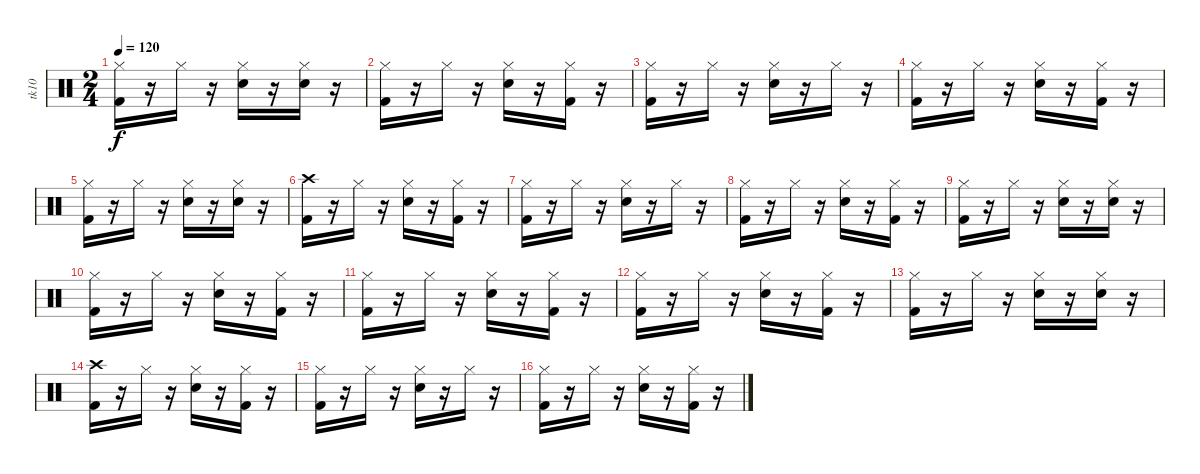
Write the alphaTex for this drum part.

\track ("tk10" "tk10") {instrument percussion}
\staff {score}
\articulation defaults
\ts (2 4)
\tempo 120
\clef neutral
\ks c
("Kick (hit) 2" "Hi-Hat (closed)").16{dy f} r.16 "Hi-Hat (closed)".16 r.16 ("Hi-Hat (closed)" "Snare (hit) 2").16 r.16 ("Snare (hit) 2" "Hi-Hat (closed)").16 r.16 |
("Hi-Hat (closed)" "Kick (hit) 2").16 r.16 "Hi-Hat (closed)".16 r.16 ("Snare (hit) 2" "Hi-Hat (closed)").16 r.16 ("Hi-Hat (closed)" "Kick (hit) 2").16 r.16 |
("Hi-Hat (closed)" "Kick (hit) 2").16 r.16 "Hi-Hat (closed)".16 r.16 ("Hi-Hat (closed)" "Snare (hit) 2").16 r.16 "Hi-Hat (closed)".16 r.16 |
("Hi-Hat (closed)" "Kick (hit) 2").16 r.16 "Hi-Hat (closed)".16 r.16 ("Snare (hit) 2" "Hi-Hat (closed)").16 r.16 ("Kick (hit) 2" "Hi-Hat (closed)").16 r.16 |
("Hi-Hat (closed)" "Kick (hit) 2").16 r.16 "Hi-Hat (closed)".16 r.16 ("Hi-Hat (closed)" "Snare (hit) 2").16 r.16 ("Snare (hit) 2" "Hi-Hat (closed)").16 r.16 |
("Crash high (hit)" "Kick (hit) 2").16 r.16 "Hi-Hat (closed)".16 r.16 ("Hi-Hat (closed)" "Snare (hit) 2").16 r.16 ("Kick (hit) 2" "Hi-Hat (closed)").16 r.16 |
("Hi-Hat (closed)" "Kick (hit) 2").16 r.16 "Hi-Hat (closed)".16 r.16 ("Hi-Hat (closed)" "Snare (hit) 2").16 r.16 "Hi-Hat (closed)".16 r.16 |
("Kick (hit) 2" "Hi-Hat (closed)").16 r.16 "Hi-Hat (closed)".16 r.16 ("Snare (hit) 2" "Hi-Hat (closed)").16 r.16 ("Hi-Hat (closed)" "Kick (hit) 2").16 r.16 |
("Kick (hit) 2" "Hi-Hat (closed)").16 r.16 "Hi-Hat (closed)".16 r.16 ("Hi-Hat (closed)" "Snare (hit) 2").16 r.16 ("Snare (hit) 2" "Hi-Hat (closed)").16 r.16 |
("Kick (hit) 2" "Hi-Hat (closed)").16 r.16 "Hi-Hat (closed)".16 r.16 ("Snare (hit) 2" "Hi-Hat (closed)").16 r.16 ("Hi-Hat (closed)" "Kick (hit) 2").16 r.16 |
("Hi-Hat (closed)" "Kick (hit) 2").16 r.16 "Hi-Hat (closed)".16 r.16 ("Hi-Hat (closed)" "Snare (hit) 2").16 r.16 ("Kick (hit) 2" "Hi-Hat (closed)").16 r.16 |
("Hi-Hat (closed)" "Kick (hit) 2").16 r.16 "Hi-Hat (closed)".16 r.16 ("Snare (hit) 2" "Hi-Hat (closed)").16 r.16 ("Hi-Hat (closed)" "Kick (hit) 2").16 r.16 |
("Hi-Hat (closed)" "Kick (hit) 2").16 r.16 "Hi-Hat (closed)".16 r.16 ("Snare (hit) 2" "Hi-Hat (closed)").16 r.16 ("Snare (hit) 2" "Hi-Hat (closed)").16 r.16 |
("Kick (hit) 2" "Crash high (hit)").16 r.16 "Hi-Hat (closed)".16 r.16 ("Hi-Hat (closed)" "Snare (hit) 2").16 r.16 ("Hi-Hat (closed)" "Kick (hit) 2").16 r.16 |
("Kick (hit) 2" "Hi-Hat (closed)").16 r.16 "Hi-Hat (closed)".16 r.16 ("Snare (hit) 2" "Hi-Hat (closed)").16 r.16 "Hi-Hat (closed)".16 r.16 |
("Hi-Hat (closed)" "Kick (hit) 2").16 r.16 "Hi-Hat (closed)".16 r.16 ("Snare (hit) 2" "Hi-Hat (closed)").16 r.16 ("Kick (hit) 2" "Hi-Hat (closed)").16 r.16
